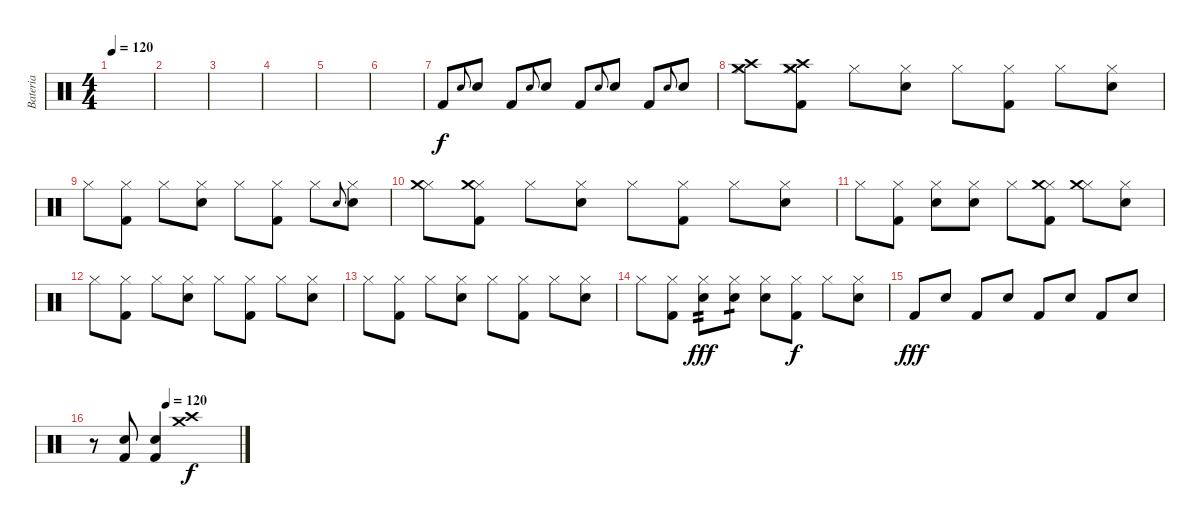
\track ("Bateria" "Bateria") {instrument percussion}
\staff {score}
\articulation defaults
\ts (4 4)
\tempo 120
\clef neutral
\ks c
|
|
|
|
|
|
"Kick (hit) 2".8 "Electric Snare (hit)".8{gr onbeat} "Electric Snare (hit)".8 "Kick (hit) 2".8 "Electric Snare (hit)".8{gr onbeat} "Electric Snare (hit)".8 "Kick (hit) 2".8 "Electric Snare (hit)".8{gr onbeat} "Electric Snare (hit)".8 "Kick (hit) 2".8 "Electric Snare (hit)".8{gr onbeat} "Electric Snare (hit)".8 |
("Hi-Hat (closed)" "Crash medium (hit)" "Crash high (hit)").8 ("Hi-Hat (closed)" "Kick (hit) 2" "Crash medium (hit)" "Crash high (hit)").8 "Hi-Hat (closed)".8 ("Hi-Hat (closed)" "Electric Snare (hit)").8 "Hi-Hat (closed)".8 ("Hi-Hat (closed)" "Kick (hit) 2").8 "Hi-Hat (closed)".8 ("Hi-Hat (closed)" "Electric Snare (hit)").8 |
"Hi-Hat (closed)".8 ("Hi-Hat (closed)" "Kick (hit) 2").8 "Hi-Hat (closed)".8 ("Hi-Hat (closed)" "Electric Snare (hit)").8 "Hi-Hat (closed)".8 ("Hi-Hat (closed)" "Kick (hit) 2").8 "Hi-Hat (closed)".8 "Electric Snare (hit)".8{gr onbeat} ("Hi-Hat (closed)" "Electric Snare (hit)").8 |
("Hi-Hat (closed)" "Crash medium (hit)").8 ("Hi-Hat (closed)" "Kick (hit) 2" "Crash medium (hit)").8 "Hi-Hat (closed)".8 ("Hi-Hat (closed)" "Electric Snare (hit)").8 "Hi-Hat (closed)".8 ("Hi-Hat (closed)" "Kick (hit) 2").8 "Hi-Hat (closed)".8 ("Hi-Hat (closed)" "Electric Snare (hit)").8 |
"Hi-Hat (closed)".8 ("Hi-Hat (closed)" "Kick (hit) 2").8 ("Hi-Hat (closed)" "Electric Snare (hit)").8 ("Hi-Hat (closed)" "Electric Snare (hit)").8 "Hi-Hat (closed)".8 ("Hi-Hat (closed)" "Kick (hit) 2" "Crash medium (hit)").8 ("Hi-Hat (closed)" "Crash medium (hit)").8 ("Hi-Hat (closed)" "Electric Snare (hit)").8 |
"Hi-Hat (closed)".8 ("Hi-Hat (closed)" "Kick (hit) 2").8 "Hi-Hat (closed)".8 ("Hi-Hat (closed)" "Electric Snare (hit)").8 "Hi-Hat (closed)".8 ("Hi-Hat (closed)" "Kick (hit) 2").8 "Hi-Hat (closed)".8 ("Hi-Hat (closed)" "Electric Snare (hit)").8 |
"Hi-Hat (closed)".8 ("Hi-Hat (closed)" "Kick (hit) 2").8 "Hi-Hat (closed)".8 ("Hi-Hat (closed)" "Electric Snare (hit)").8 "Hi-Hat (closed)".8 ("Hi-Hat (closed)" "Kick (hit) 2").8 "Hi-Hat (closed)".8 ("Hi-Hat (closed)" "Electric Snare (hit)").8 |
"Hi-Hat (closed)".8 ("Hi-Hat (closed)" "Kick (hit) 2").8 ("Hi-Hat (closed)" "Electric Snare (hit)").8{tp 2 dy fff} ("Hi-Hat (closed)" "Electric Snare (hit)").8{tp 1} ("Hi-Hat (closed)" "Electric Snare (hit)").8 ("Hi-Hat (closed)" "Kick (hit) 2").8{dy f} "Hi-Hat (closed)".8 ("Hi-Hat (closed)" "Electric Snare (hit)").8 |
"Kick (hit) 2".8{dy fff} "Electric Snare (hit)".8 "Kick (hit) 2".8 "Electric Snare (hit)".8 "Kick (hit) 2".8 "Electric Snare (hit)".8 "Kick (hit) 2".8 "Electric Snare (hit)".8 |
\tempo (120 0.5)
r.8 ("Electric Snare (hit)" "Kick (hit) 2").8 ("Electric Snare (hit)" "Kick (hit) 2").4 ("Crash medium (hit)" "Crash high (hit)").1{dy f}
